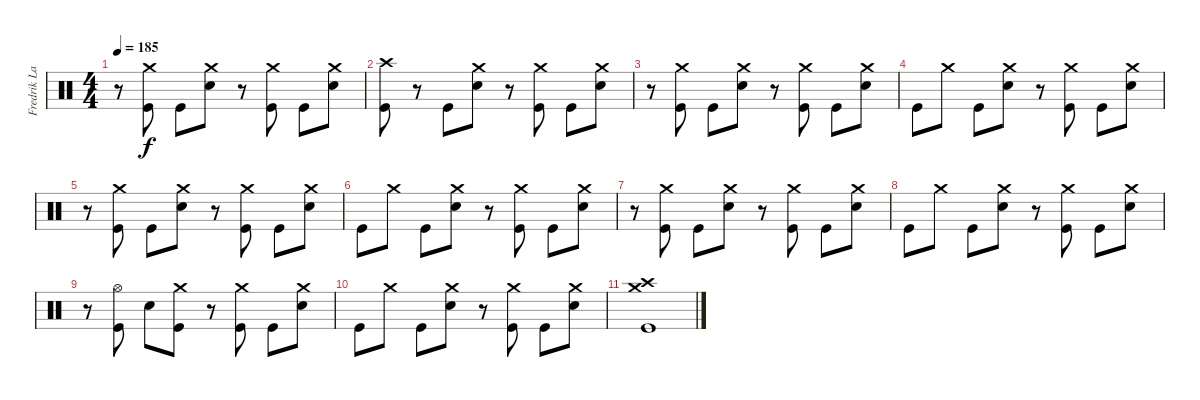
\track ("Fredrik Larzon" "Fredrik La") {instrument percussion}
\staff {score}
\articulation defaults
\ts (4 4)
\tempo 185
\clef neutral
\ks c
r.8{dy f} ("Crash medium (hit)" "Kick (hit)").8 "Kick (hit)".8 ("Crash medium (hit)" "Electric Snare (hit)").8 r.8 ("Crash medium (hit)" "Kick (hit)").8 "Kick (hit)".8 ("Crash medium (hit)" "Electric Snare (hit)").8 |
("Crash high (hit)" "Kick (hit)").8 r.8 "Kick (hit)".8 ("Crash medium (hit)" "Electric Snare (hit)").8 r.8 ("Crash medium (hit)" "Kick (hit)").8 "Kick (hit)".8 ("Crash medium (hit)" "Electric Snare (hit)").8 |
r.8 ("Crash medium (hit)" "Kick (hit)").8 "Kick (hit)".8 ("Crash medium (hit)" "Electric Snare (hit)").8 r.8 ("Crash medium (hit)" "Kick (hit)").8 "Kick (hit)".8 ("Crash medium (hit)" "Electric Snare (hit)").8 |
"Kick (hit)".8 "Crash medium (hit)".8 "Kick (hit)".8 ("Crash medium (hit)" "Electric Snare (hit)").8 r.8 ("Crash medium (hit)" "Kick (hit)").8 "Kick (hit)".8 ("Crash medium (hit)" "Electric Snare (hit)").8 |
r.8 ("Crash medium (hit)" "Kick (hit)").8 "Kick (hit)".8 ("Crash medium (hit)" "Electric Snare (hit)").8 r.8 ("Crash medium (hit)" "Kick (hit)").8 "Kick (hit)".8 ("Crash medium (hit)" "Electric Snare (hit)").8 |
"Kick (hit)".8 "Crash medium (hit)".8 "Kick (hit)".8 ("Crash medium (hit)" "Electric Snare (hit)").8 r.8 ("Crash medium (hit)" "Kick (hit)").8 "Kick (hit)".8 ("Crash medium (hit)" "Electric Snare (hit)").8 |
r.8 ("Crash medium (hit)" "Kick (hit)").8 "Kick (hit)".8 ("Crash medium (hit)" "Electric Snare (hit)").8 r.8 ("Crash medium (hit)" "Kick (hit)").8 "Kick (hit)".8 ("Crash medium (hit)" "Electric Snare (hit)").8 |
"Kick (hit)".8 "Crash medium (hit)".8 "Kick (hit)".8 ("Crash medium (hit)" "Electric Snare (hit)").8 r.8 ("Crash medium (hit)" "Kick (hit)").8 "Kick (hit)".8 ("Crash medium (hit)" "Electric Snare (hit)").8 |
r.8 ("Hi-Hat (open)" "Kick (hit)").8 "Electric Snare (hit)".8 ("Crash medium (hit)" "Kick (hit)").8 r.8 ("Crash medium (hit)" "Kick (hit)").8 "Kick (hit)".8 ("Crash medium (hit)" "Electric Snare (hit)").8 |
"Kick (hit)".8 "Crash medium (hit)".8 "Kick (hit)".8 ("Crash medium (hit)" "Electric Snare (hit)").8 r.8 ("Crash medium (hit)" "Kick (hit)").8 "Kick (hit)".8 ("Crash medium (hit)" "Electric Snare (hit)").8 |
("Crash high (hit)" "Crash medium (hit)" "Kick (hit)").1
